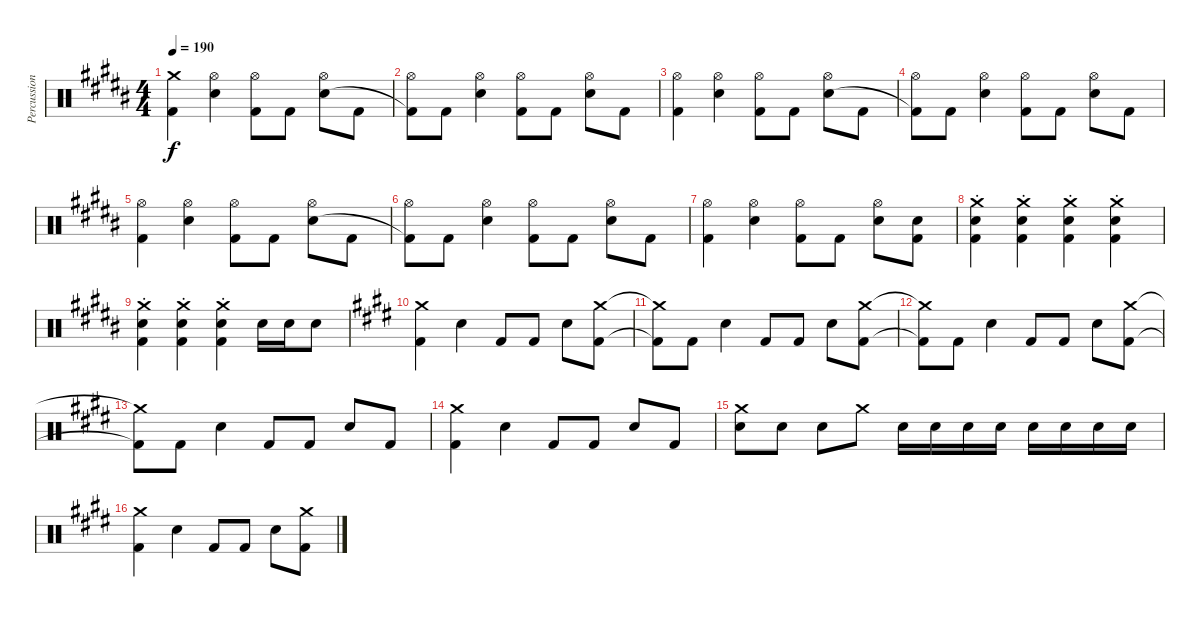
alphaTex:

\track ("Percussion" "Percussion") {instrument percussion}
\staff {score}
\articulation defaults
\ts (4 4)
\tempo 190
\clef neutral
\ks b
("Crash medium (hit)" "Kick (hit) 2").4{dy f} ("Hi-Hat (open)" "Snare (hit) 2").4 ("Hi-Hat (open)" "Kick (hit) 2").8 "Kick (hit) 2".8 ("Hi-Hat (open)" "Snare (hit) 2").8 "Kick (hit) 2".8 |
("Hi-Hat (open)" "Kick (hit) 2"{t}).8 "Kick (hit) 2".8 ("Hi-Hat (open)" "Snare (hit) 2").4 ("Hi-Hat (open)" "Kick (hit) 2").8 "Kick (hit) 2".8 ("Hi-Hat (open)" "Snare (hit) 2").8 "Kick (hit) 2".8 |
("Hi-Hat (open)" "Kick (hit) 2").4 ("Hi-Hat (open)" "Snare (hit) 2").4 ("Hi-Hat (open)" "Kick (hit) 2").8 "Kick (hit) 2".8 ("Hi-Hat (open)" "Snare (hit) 2").8 "Kick (hit) 2".8 |
("Hi-Hat (open)" "Kick (hit) 2"{t}).8 "Kick (hit) 2".8 ("Hi-Hat (open)" "Snare (hit) 2").4 ("Hi-Hat (open)" "Kick (hit) 2").8 "Kick (hit) 2".8 ("Hi-Hat (open)" "Snare (hit) 2").8 "Kick (hit) 2".8 |
("Hi-Hat (open)" "Kick (hit) 2").4 ("Hi-Hat (open)" "Snare (hit) 2").4 ("Hi-Hat (open)" "Kick (hit) 2").8 "Kick (hit) 2".8 ("Hi-Hat (open)" "Snare (hit) 2").8 "Kick (hit) 2".8 |
("Hi-Hat (open)" "Kick (hit) 2"{t}).8 "Kick (hit) 2".8 ("Hi-Hat (open)" "Snare (hit) 2").4 ("Hi-Hat (open)" "Kick (hit) 2").8 "Kick (hit) 2".8 ("Hi-Hat (open)" "Snare (hit) 2").8 "Kick (hit) 2".8 |
("Hi-Hat (open)" "Kick (hit) 2").4 ("Hi-Hat (open)" "Snare (hit) 2").4 ("Hi-Hat (open)" "Kick (hit) 2").8 "Kick (hit) 2".8 ("Hi-Hat (open)" "Snare (hit) 2").8 ("Snare (hit) 2" "Kick (hit) 2").8 |
("Crash medium (hit)"{st} "Snare (hit) 2"{st} "Kick (hit) 2"{st}).4 ("Crash medium (hit)"{st} "Snare (hit) 2"{st} "Kick (hit) 2"{st}).4 ("Crash medium (hit)"{st} "Snare (hit) 2"{st} "Kick (hit) 2"{st}).4 ("Crash medium (hit)"{st} "Snare (hit) 2"{st} "Kick (hit) 2"{st}).4 |
("Crash medium (hit)"{st} "Snare (hit) 2"{st} "Kick (hit) 2"{st}).4 ("Crash medium (hit)"{st} "Snare (hit) 2"{st} "Kick (hit) 2"{st}).4 ("Crash medium (hit)"{st} "Snare (hit) 2"{st} "Kick (hit) 2"{st}).4 "Snare (hit) 2".16 "Snare (hit) 2".16 "Snare (hit) 2".8 |
\ks e
("Crash medium (hit)" "Kick (hit) 2").4 "Snare (hit) 2".4 "Kick (hit) 2".8 "Kick (hit) 2".8 "Snare (hit) 2".8 ("Crash medium (hit)" "Kick (hit) 2").8 |
("Crash medium (hit)"{t} "Kick (hit) 2"{t}).8 "Kick (hit) 2".8 "Snare (hit) 2".4 "Kick (hit) 2".8 "Kick (hit) 2".8 "Snare (hit) 2".8 ("Crash medium (hit)" "Kick (hit) 2").8 |
("Crash medium (hit)"{t} "Kick (hit) 2"{t}).8 "Kick (hit) 2".8 "Snare (hit) 2".4 "Kick (hit) 2".8 "Kick (hit) 2".8 "Snare (hit) 2".8 ("Crash medium (hit)" "Kick (hit) 2").8 |
("Crash medium (hit)"{t} "Kick (hit) 2"{t}).8 "Kick (hit) 2".8 "Snare (hit) 2".4 "Kick (hit) 2".8 "Kick (hit) 2".8 "Snare (hit) 2".8 "Kick (hit) 2".8 |
("Crash medium (hit)" "Kick (hit) 2").4 "Snare (hit) 2".4 "Kick (hit) 2".8 "Kick (hit) 2".8 "Snare (hit) 2".8 "Kick (hit) 2".8 |
("Crash medium (hit)" "Snare (hit) 2").8 "Snare (hit) 2".8 "Snare (hit) 2".8 "Crash medium (hit)".8 "Snare (hit) 2".16 "Snare (hit) 2".16 "Snare (hit) 2".16 "Snare (hit) 2".16 "Snare (hit) 2".16 "Snare (hit) 2".16 "Snare (hit) 2".16 "Snare (hit) 2".16 |
("Crash medium (hit)" "Kick (hit) 2").4 "Snare (hit) 2".4 "Kick (hit) 2".8 "Kick (hit) 2".8 "Snare (hit) 2".8 ("Crash medium (hit)" "Kick (hit) 2").8
